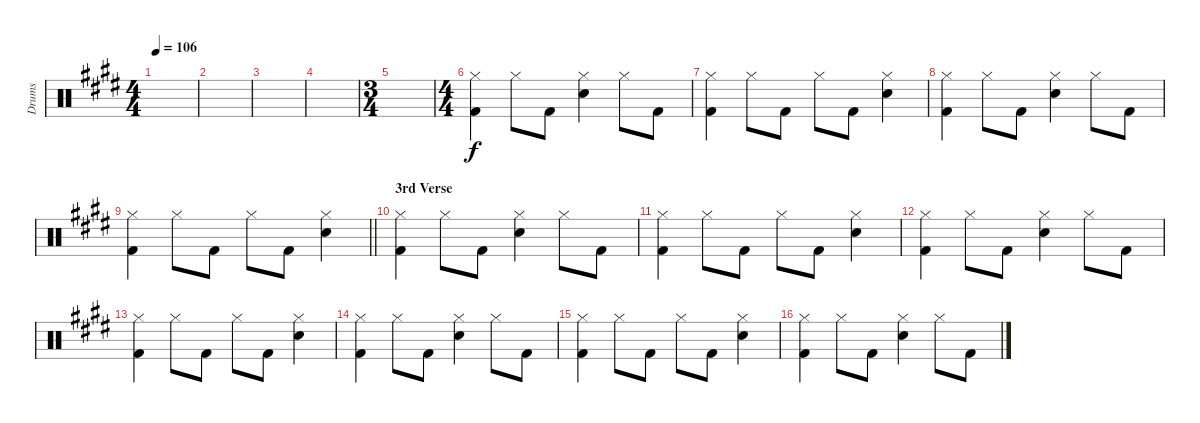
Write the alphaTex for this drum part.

\track ("Drums" "Drums") {instrument percussion}
\staff {score}
\articulation defaults
\ts (4 4)
\tempo 106
\clef neutral
\ks e
|
|
|
|
\ts (3 4)
|
\ts (4 4)
("Hi-Hat (closed)" "Kick (hit) 2").4 "Hi-Hat (closed)".8 "Kick (hit) 2".8 ("Hi-Hat (closed)" "Snare (hit) 2").4 "Hi-Hat (closed)".8 "Kick (hit) 2".8 |
("Hi-Hat (closed)" "Kick (hit) 2").4 "Hi-Hat (closed)".8 "Kick (hit) 2".8 "Hi-Hat (closed)".8 "Kick (hit) 2".8 ("Hi-Hat (closed)" "Snare (hit) 2").4 |
("Hi-Hat (closed)" "Kick (hit) 2").4 "Hi-Hat (closed)".8 "Kick (hit) 2".8 ("Hi-Hat (closed)" "Snare (hit) 2").4 "Hi-Hat (closed)".8 "Kick (hit) 2".8 |
\barLineRight lightlight
("Hi-Hat (closed)" "Kick (hit) 2").4 "Hi-Hat (closed)".8 "Kick (hit) 2".8 "Hi-Hat (closed)".8 "Kick (hit) 2".8 ("Hi-Hat (closed)" "Snare (hit) 2").4 |
\section ("" "3rd Verse")
("Hi-Hat (closed)" "Kick (hit) 2").4 "Hi-Hat (closed)".8 "Kick (hit) 2".8 ("Hi-Hat (closed)" "Snare (hit) 2").4 "Hi-Hat (closed)".8 "Kick (hit) 2".8 |
("Hi-Hat (closed)" "Kick (hit) 2").4 "Hi-Hat (closed)".8 "Kick (hit) 2".8 "Hi-Hat (closed)".8 "Kick (hit) 2".8 ("Hi-Hat (closed)" "Snare (hit) 2").4 |
("Hi-Hat (closed)" "Kick (hit) 2").4 "Hi-Hat (closed)".8 "Kick (hit) 2".8 ("Hi-Hat (closed)" "Snare (hit) 2").4 "Hi-Hat (closed)".8 "Kick (hit) 2".8 |
("Hi-Hat (closed)" "Kick (hit) 2").4 "Hi-Hat (closed)".8 "Kick (hit) 2".8 "Hi-Hat (closed)".8 "Kick (hit) 2".8 ("Hi-Hat (closed)" "Snare (hit) 2").4 |
("Hi-Hat (closed)" "Kick (hit) 2").4 "Hi-Hat (closed)".8 "Kick (hit) 2".8 ("Hi-Hat (closed)" "Snare (hit) 2").4 "Hi-Hat (closed)".8 "Kick (hit) 2".8 |
("Hi-Hat (closed)" "Kick (hit) 2").4 "Hi-Hat (closed)".8 "Kick (hit) 2".8 "Hi-Hat (closed)".8 "Kick (hit) 2".8 ("Hi-Hat (closed)" "Snare (hit) 2").4 |
("Hi-Hat (closed)" "Kick (hit) 2").4 "Hi-Hat (closed)".8 "Kick (hit) 2".8 ("Hi-Hat (closed)" "Snare (hit) 2").4 "Hi-Hat (closed)".8 "Kick (hit) 2".8
